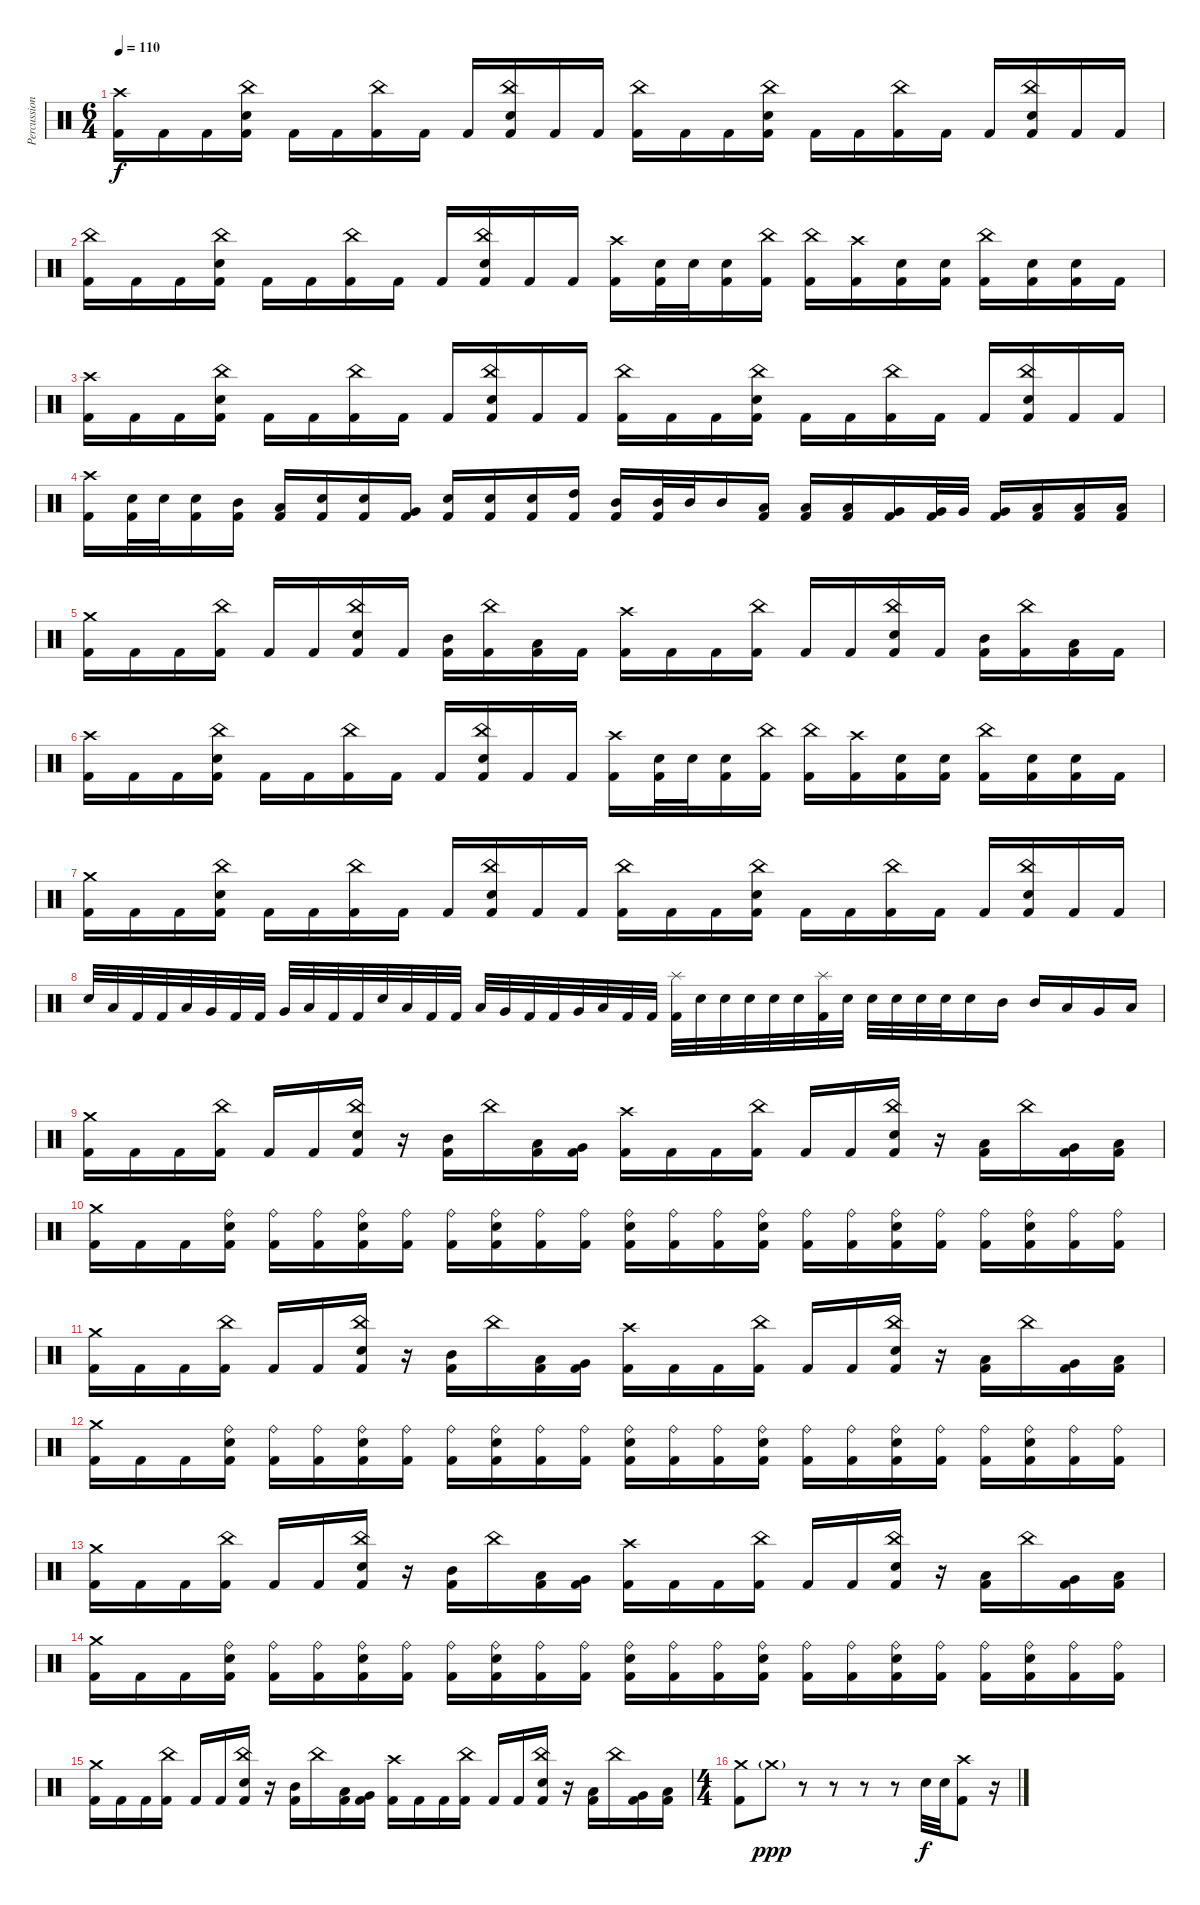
\track ("Percussion" "Percussion") {instrument percussion}
\staff {score}
\articulation defaults
\ts (6 4)
\tempo 110
\clef neutral
\ks c
("Crash high (hit)" "Kick (hit) 2").16{dy f} "Kick (hit) 2".16 "Kick (hit) 2".16 ("China (hit)" "Electric Snare (hit)" "Kick (hit) 2").16 "Kick (hit) 2".16 "Kick (hit) 2".16 ("China (hit)" "Kick (hit) 2").16 "Kick (hit) 2".16 "Kick (hit) 2".16 ("China (hit)" "Electric Snare (hit)" "Kick (hit) 2").16 "Kick (hit) 2".16 "Kick (hit) 2".16 ("China (hit)" "Kick (hit) 2").16 "Kick (hit) 2".16 "Kick (hit) 2".16 ("China (hit)" "Electric Snare (hit)" "Kick (hit) 2").16 "Kick (hit) 2".16 "Kick (hit) 2".16 ("China (hit)" "Kick (hit) 2").16 "Kick (hit) 2".16 "Kick (hit) 2".16 ("China (hit)" "Electric Snare (hit)" "Kick (hit) 2").16 "Kick (hit) 2".16 "Kick (hit) 2".16 |
("China (hit)" "Kick (hit) 2").16 "Kick (hit) 2".16 "Kick (hit) 2".16 ("China (hit)" "Electric Snare (hit)" "Kick (hit) 2").16 "Kick (hit) 2".16 "Kick (hit) 2".16 ("China (hit)" "Kick (hit) 2").16 "Kick (hit) 2".16 "Kick (hit) 2".16 ("China (hit)" "Electric Snare (hit)" "Kick (hit) 2").16 "Kick (hit) 2".16 "Kick (hit) 2".16 ("Crash high (hit)" "Kick (hit) 2").16 ("Electric Snare (hit)" "Kick (hit) 2").32 "Electric Snare (hit)".32 ("Electric Snare (hit)" "Kick (hit) 2").16 ("China (hit)" "Kick (hit) 2").16 ("China (hit)" "Kick (hit) 2").16 ("Crash high (hit)" "Kick (hit) 2").16 ("Electric Snare (hit)" "Kick (hit) 2").16 ("Electric Snare (hit)" "Kick (hit) 2").16 ("China (hit)" "Kick (hit) 2").16 ("Electric Snare (hit)" "Kick (hit) 2").16 ("Electric Snare (hit)" "Kick (hit) 2").16 "Kick (hit) 2".16 |
("Crash high (hit)" "Kick (hit) 2").16 "Kick (hit) 2".16 "Kick (hit) 2".16 ("China (hit)" "Electric Snare (hit)" "Kick (hit) 2").16 "Kick (hit) 2".16 "Kick (hit) 2".16 ("China (hit)" "Kick (hit) 2").16 "Kick (hit) 2".16 "Kick (hit) 2".16 ("China (hit)" "Electric Snare (hit)" "Kick (hit) 2").16 "Kick (hit) 2".16 "Kick (hit) 2".16 ("China (hit)" "Kick (hit) 2").16 "Kick (hit) 2".16 "Kick (hit) 2".16 ("China (hit)" "Electric Snare (hit)" "Kick (hit) 2").16 "Kick (hit) 2".16 "Kick (hit) 2".16 ("China (hit)" "Kick (hit) 2").16 "Kick (hit) 2".16 "Kick (hit) 2".16 ("China (hit)" "Electric Snare (hit)" "Kick (hit) 2").16 "Kick (hit) 2".16 "Kick (hit) 2".16 |
("Crash high (hit)" "Kick (hit) 2").16 ("Electric Snare (hit)" "Kick (hit) 2").32 "Electric Snare (hit)".32 ("Electric Snare (hit)" "Kick (hit) 2").16 ("Mid Tom (hit)" "Kick (hit) 2").16 ("Low Tom (hit)" "Kick (hit) 2").16 ("Electric Snare (hit)" "Kick (hit) 2").16 ("Electric Snare (hit)" "Kick (hit) 2").16 ("Very Low Tom (hit)" "Kick (hit) 2").16 ("Electric Snare (hit)" "Kick (hit) 2").16 ("Electric Snare (hit)" "Kick (hit) 2").16 ("Electric Snare (hit)" "Kick (hit) 2").16 ("High Tom (hit)" "Kick (hit) 2").16 ("Mid Tom (hit)" "Kick (hit) 2").16 ("Mid Tom (hit)" "Kick (hit) 2").32 "Mid Tom (hit)".32 "Mid Tom (hit)".16 ("Low Tom (hit)" "Kick (hit) 2").16 ("Low Tom (hit)" "Kick (hit) 2").16 ("Low Tom (hit)" "Kick (hit) 2").16 ("Very Low Tom (hit)" "Kick (hit) 2").16 ("Very Low Tom (hit)" "Kick (hit) 2").32 "Very Low Tom (hit)".32 ("Very Low Tom (hit)" "Kick (hit) 2").16 ("Low Floor Tom (hit)" "Kick (hit) 2").16 ("Low Floor Tom (hit)" "Kick (hit) 2").16 ("Low Floor Tom (hit)" "Kick (hit) 2").16 |
("Crash medium (hit)" "Kick (hit) 2").16 "Kick (hit) 2".16 "Kick (hit) 2".16 ("China (hit)" "Kick (hit) 2").16 "Kick (hit) 2".16 "Kick (hit) 2".16 ("China (hit)" "Electric Snare (hit)" "Kick (hit) 2").16 "Kick (hit) 2".16 ("Mid Tom (hit)" "Kick (hit) 2").16 ("China (hit)" "Kick (hit) 2").16 ("Low Tom (hit)" "Kick (hit) 2").16 "Kick (hit) 2".16 ("Crash high (hit)" "Kick (hit) 2").16 "Kick (hit) 2".16 "Kick (hit) 2".16 ("China (hit)" "Kick (hit) 2").16 "Kick (hit) 2".16 "Kick (hit) 2".16 ("China (hit)" "Electric Snare (hit)" "Kick (hit) 2").16 "Kick (hit) 2".16 ("Mid Tom (hit)" "Kick (hit) 2").16 ("China (hit)" "Kick (hit) 2").16 ("Low Tom (hit)" "Kick (hit) 2").16 "Kick (hit) 2".16 |
("Crash high (hit)" "Kick (hit) 2").16 "Kick (hit) 2".16 "Kick (hit) 2".16 ("China (hit)" "Electric Snare (hit)" "Kick (hit) 2").16 "Kick (hit) 2".16 "Kick (hit) 2".16 ("China (hit)" "Kick (hit) 2").16 "Kick (hit) 2".16 "Kick (hit) 2".16 ("China (hit)" "Electric Snare (hit)" "Kick (hit) 2").16 "Kick (hit) 2".16 "Kick (hit) 2".16 ("Crash high (hit)" "Kick (hit) 2").16 ("Electric Snare (hit)" "Kick (hit) 2").32 "Electric Snare (hit)".32 ("Electric Snare (hit)" "Kick (hit) 2").16 ("China (hit)" "Kick (hit) 2").16 ("China (hit)" "Kick (hit) 2").16 ("Crash high (hit)" "Kick (hit) 2").16 ("Electric Snare (hit)" "Kick (hit) 2").16 ("Electric Snare (hit)" "Kick (hit) 2").16 ("China (hit)" "Kick (hit) 2").16 ("Electric Snare (hit)" "Kick (hit) 2").16 ("Electric Snare (hit)" "Kick (hit) 2").16 "Kick (hit) 2".16 |
("Crash medium (hit)" "Kick (hit) 2").16 "Kick (hit) 2".16 "Kick (hit) 2".16 ("China (hit)" "Electric Snare (hit)" "Kick (hit) 2").16 "Kick (hit) 2".16 "Kick (hit) 2".16 ("China (hit)" "Kick (hit) 2").16 "Kick (hit) 2".16 "Kick (hit) 2".16 ("China (hit)" "Electric Snare (hit)" "Kick (hit) 2").16 "Kick (hit) 2".16 "Kick (hit) 2".16 ("China (hit)" "Kick (hit) 2").16 "Kick (hit) 2".16 "Kick (hit) 2".16 ("China (hit)" "Electric Snare (hit)" "Kick (hit) 2").16 "Kick (hit) 2".16 "Kick (hit) 2".16 ("China (hit)" "Kick (hit) 2").16 "Kick (hit) 2".16 "Kick (hit) 2".16 ("China (hit)" "Electric Snare (hit)" "Kick (hit) 2").16 "Kick (hit) 2".16 "Kick (hit) 2".16 |
"Electric Snare (hit)".32 "Low Tom (hit)".32 "Kick (hit) 2".32 "Kick (hit) 2".32 "Low Tom (hit)".32 "Very Low Tom (hit)".32 "Kick (hit) 2".32 "Kick (hit) 2".32 "Very Low Tom (hit)".32 "Low Floor Tom (hit)".32 "Kick (hit) 2".32 "Kick (hit) 2".32 "Electric Snare (hit)".32 "Low Tom (hit)".32 "Kick (hit) 2".32 "Kick (hit) 2".32 "Low Tom (hit)".32 "Very Low Tom (hit)".32 "Kick (hit) 2".32 "Kick (hit) 2".32 "Very Low Tom (hit)".32 "Low Floor Tom (hit)".32 "Kick (hit) 2".32 "Kick (hit) 2".32 ("Splash (hit)" "Kick (hit) 2").32 "Electric Snare (hit)".32 "Electric Snare (hit)".32 "Electric Snare (hit)".32 "Electric Snare (hit)".32 "Electric Snare (hit)".32 ("Splash (hit)" "Kick (hit) 2").32 "Electric Snare (hit)".32 "Electric Snare (hit)".32 "Electric Snare (hit)".32 "Electric Snare (hit)".32 "Electric Snare (hit)".32 "Electric Snare (hit)".16 "Mid Tom (hit)".16 "Mid Tom (hit)".16 "Low Tom (hit)".16 "Very Low Tom (hit)".16 "Low Floor Tom (hit)".16 |
("Crash medium (hit)" "Kick (hit) 2").16 "Kick (hit) 2".16 "Kick (hit) 2".16 ("China (hit)" "Kick (hit) 2").16 "Kick (hit) 2".16 "Kick (hit) 2".16 ("China (hit)" "Electric Snare (hit)" "Kick (hit) 2").16 r.16 ("Mid Tom (hit)" "Kick (hit) 2").16 "China (hit)".16 ("Low Tom (hit)" "Kick (hit) 2").16 ("Very Low Tom (hit)" "Kick (hit) 2").16 ("Crash high (hit)" "Kick (hit) 2").16 "Kick (hit) 2".16 "Kick (hit) 2".16 ("China (hit)" "Kick (hit) 2").16 "Kick (hit) 2".16 "Kick (hit) 2".16 ("China (hit)" "Electric Snare (hit)" "Kick (hit) 2").16 r.16 ("Low Tom (hit)" "Kick (hit) 2").16 "China (hit)".16 ("Very Low Tom (hit)" "Kick (hit) 2").16 ("Low Floor Tom (hit)" "Kick (hit) 2").16 |
("Crash medium (hit)" "Kick (hit) 2").16 "Kick (hit) 2".16 "Kick (hit) 2".16 ("Ride (bell)" "Electric Snare (hit)" "Kick (hit) 2").16 ("Ride (bell)" "Kick (hit) 2").16 ("Ride (bell)" "Kick (hit) 2").16 ("Ride (bell)" "Electric Snare (hit)" "Kick (hit) 2").16 ("Ride (bell)" "Kick (hit) 2").16 ("Ride (bell)" "Kick (hit) 2").16 ("Ride (bell)" "Electric Snare (hit)" "Kick (hit) 2").16 ("Ride (bell)" "Kick (hit) 2").16 ("Ride (bell)" "Kick (hit) 2").16 ("Ride (bell)" "Electric Snare (hit)" "Kick (hit) 2").16 ("Ride (bell)" "Kick (hit) 2").16 ("Ride (bell)" "Kick (hit) 2").16 ("Ride (bell)" "Electric Snare (hit)" "Kick (hit) 2").16 ("Ride (bell)" "Kick (hit) 2").16 ("Ride (bell)" "Kick (hit) 2").16 ("Ride (bell)" "Electric Snare (hit)" "Kick (hit) 2").16 ("Ride (bell)" "Kick (hit) 2").16 ("Ride (bell)" "Kick (hit) 2").16 ("Ride (bell)" "Electric Snare (hit)" "Kick (hit) 2").16 ("Ride (bell)" "Kick (hit) 2").16 ("Ride (bell)" "Kick (hit) 2").16 |
("Crash medium (hit)" "Kick (hit) 2").16 "Kick (hit) 2".16 "Kick (hit) 2".16 ("China (hit)" "Kick (hit) 2").16 "Kick (hit) 2".16 "Kick (hit) 2".16 ("China (hit)" "Electric Snare (hit)" "Kick (hit) 2").16 r.16 ("Mid Tom (hit)" "Kick (hit) 2").16 "China (hit)".16 ("Low Tom (hit)" "Kick (hit) 2").16 ("Very Low Tom (hit)" "Kick (hit) 2").16 ("Crash high (hit)" "Kick (hit) 2").16 "Kick (hit) 2".16 "Kick (hit) 2".16 ("China (hit)" "Kick (hit) 2").16 "Kick (hit) 2".16 "Kick (hit) 2".16 ("China (hit)" "Electric Snare (hit)" "Kick (hit) 2").16 r.16 ("Low Tom (hit)" "Kick (hit) 2").16 "China (hit)".16 ("Very Low Tom (hit)" "Kick (hit) 2").16 ("Low Floor Tom (hit)" "Kick (hit) 2").16 |
("Crash medium (hit)" "Kick (hit) 2").16 "Kick (hit) 2".16 "Kick (hit) 2".16 ("Ride (bell)" "Electric Snare (hit)" "Kick (hit) 2").16 ("Ride (bell)" "Kick (hit) 2").16 ("Ride (bell)" "Kick (hit) 2").16 ("Ride (bell)" "Electric Snare (hit)" "Kick (hit) 2").16 ("Ride (bell)" "Kick (hit) 2").16 ("Ride (bell)" "Kick (hit) 2").16 ("Ride (bell)" "Electric Snare (hit)" "Kick (hit) 2").16 ("Ride (bell)" "Kick (hit) 2").16 ("Ride (bell)" "Kick (hit) 2").16 ("Ride (bell)" "Electric Snare (hit)" "Kick (hit) 2").16 ("Ride (bell)" "Kick (hit) 2").16 ("Ride (bell)" "Kick (hit) 2").16 ("Ride (bell)" "Electric Snare (hit)" "Kick (hit) 2").16 ("Ride (bell)" "Kick (hit) 2").16 ("Ride (bell)" "Kick (hit) 2").16 ("Ride (bell)" "Electric Snare (hit)" "Kick (hit) 2").16 ("Ride (bell)" "Kick (hit) 2").16 ("Ride (bell)" "Kick (hit) 2").16 ("Ride (bell)" "Electric Snare (hit)" "Kick (hit) 2").16 ("Ride (bell)" "Kick (hit) 2").16 ("Ride (bell)" "Kick (hit) 2").16 |
("Crash medium (hit)" "Kick (hit) 2").16 "Kick (hit) 2".16 "Kick (hit) 2".16 ("China (hit)" "Kick (hit) 2").16 "Kick (hit) 2".16 "Kick (hit) 2".16 ("China (hit)" "Electric Snare (hit)" "Kick (hit) 2").16 r.16 ("Mid Tom (hit)" "Kick (hit) 2").16 "China (hit)".16 ("Low Tom (hit)" "Kick (hit) 2").16 ("Very Low Tom (hit)" "Kick (hit) 2").16 ("Crash high (hit)" "Kick (hit) 2").16 "Kick (hit) 2".16 "Kick (hit) 2".16 ("China (hit)" "Kick (hit) 2").16 "Kick (hit) 2".16 "Kick (hit) 2".16 ("China (hit)" "Electric Snare (hit)" "Kick (hit) 2").16 r.16 ("Low Tom (hit)" "Kick (hit) 2").16 "China (hit)".16 ("Very Low Tom (hit)" "Kick (hit) 2").16 ("Low Floor Tom (hit)" "Kick (hit) 2").16 |
("Crash medium (hit)" "Kick (hit) 2").16 "Kick (hit) 2".16 "Kick (hit) 2".16 ("Ride (bell)" "Electric Snare (hit)" "Kick (hit) 2").16 ("Ride (bell)" "Kick (hit) 2").16 ("Ride (bell)" "Kick (hit) 2").16 ("Ride (bell)" "Electric Snare (hit)" "Kick (hit) 2").16 ("Ride (bell)" "Kick (hit) 2").16 ("Ride (bell)" "Kick (hit) 2").16 ("Ride (bell)" "Electric Snare (hit)" "Kick (hit) 2").16 ("Ride (bell)" "Kick (hit) 2").16 ("Ride (bell)" "Kick (hit) 2").16 ("Ride (bell)" "Electric Snare (hit)" "Kick (hit) 2").16 ("Ride (bell)" "Kick (hit) 2").16 ("Ride (bell)" "Kick (hit) 2").16 ("Ride (bell)" "Electric Snare (hit)" "Kick (hit) 2").16 ("Ride (bell)" "Kick (hit) 2").16 ("Ride (bell)" "Kick (hit) 2").16 ("Ride (bell)" "Electric Snare (hit)" "Kick (hit) 2").16 ("Ride (bell)" "Kick (hit) 2").16 ("Ride (bell)" "Kick (hit) 2").16 ("Ride (bell)" "Electric Snare (hit)" "Kick (hit) 2").16 ("Ride (bell)" "Kick (hit) 2").16 ("Ride (bell)" "Kick (hit) 2").16 |
("Crash medium (hit)" "Kick (hit) 2").16 "Kick (hit) 2".16 "Kick (hit) 2".16 ("China (hit)" "Kick (hit) 2").16 "Kick (hit) 2".16 "Kick (hit) 2".16 ("China (hit)" "Electric Snare (hit)" "Kick (hit) 2").16 r.16 ("Mid Tom (hit)" "Kick (hit) 2").16 "China (hit)".16 ("Low Tom (hit)" "Kick (hit) 2").16 ("Very Low Tom (hit)" "Kick (hit) 2").16 ("Crash high (hit)" "Kick (hit) 2").16 "Kick (hit) 2".16 "Kick (hit) 2".16 ("China (hit)" "Kick (hit) 2").16 "Kick (hit) 2".16 "Kick (hit) 2".16 ("China (hit)" "Electric Snare (hit)" "Kick (hit) 2").16 r.16 ("Low Tom (hit)" "Kick (hit) 2").16 "China (hit)".16 ("Very Low Tom (hit)" "Kick (hit) 2").16 ("Low Floor Tom (hit)" "Kick (hit) 2").16 |
\ts (4 4)
("Crash medium (hit)" "Kick (hit) 2").8 "Crash medium (hit)"{g}.8{dy ppp} r.8 r.8 r.8 r.8 "Electric Snare (hit)".32{dy f} "Electric Snare (hit)".32 ("Crash high (hit)" "Kick (hit) 2").8 r.16
